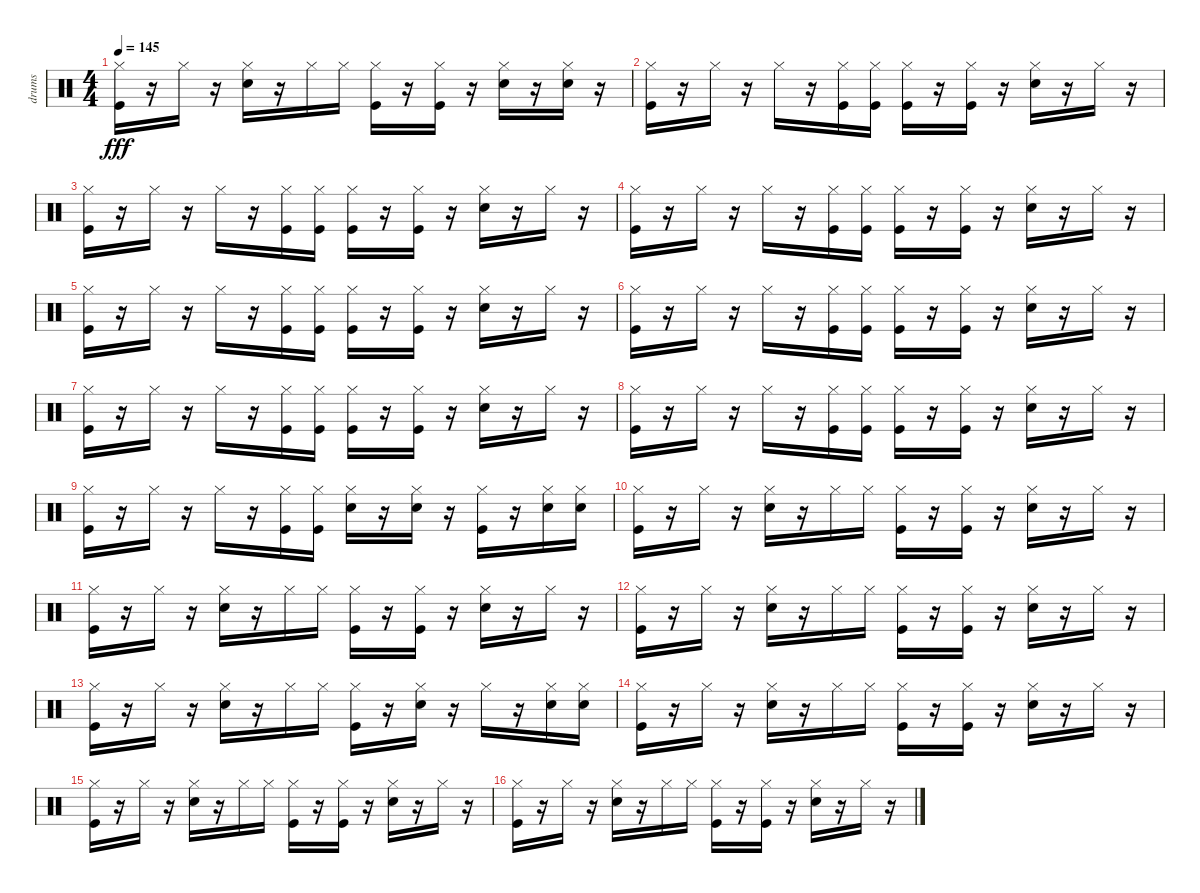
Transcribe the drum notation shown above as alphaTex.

\track ("drums" "drums") {instrument percussion}
\staff {score}
\articulation defaults
\ts (4 4)
\tempo 145
\clef neutral
\ks c
("Kick (hit)" "Hi-Hat (closed)").16{dy fff} r.16 "Hi-Hat (closed)".16 r.16 ("Snare (hit) 2" "Hi-Hat (closed)").16 r.16 "Hi-Hat (closed)".16 "Hi-Hat (closed)".16 ("Kick (hit)" "Hi-Hat (closed)").16 r.16 ("Kick (hit)" "Hi-Hat (closed)").16 r.16 ("Snare (hit) 2" "Hi-Hat (closed)").16 r.16 ("Snare (hit) 2" "Hi-Hat (closed)").16 r.16 |
("Kick (hit)" "Hi-Hat (closed)").16 r.16 "Hi-Hat (closed)".16 r.16 "Hi-Hat (closed)".16 r.16 ("Kick (hit)" "Hi-Hat (closed)").16 ("Kick (hit)" "Hi-Hat (closed)").16 ("Kick (hit)" "Hi-Hat (closed)").16 r.16 ("Kick (hit)" "Hi-Hat (closed)").16 r.16 ("Snare (hit) 2" "Hi-Hat (closed)").16 r.16 "Hi-Hat (closed)".16 r.16 |
("Kick (hit)" "Hi-Hat (closed)").16 r.16 "Hi-Hat (closed)".16 r.16 "Hi-Hat (closed)".16 r.16 ("Kick (hit)" "Hi-Hat (closed)").16 ("Kick (hit)" "Hi-Hat (closed)").16 ("Kick (hit)" "Hi-Hat (closed)").16 r.16 ("Kick (hit)" "Hi-Hat (closed)").16 r.16 ("Snare (hit) 2" "Hi-Hat (closed)").16 r.16 "Hi-Hat (closed)".16 r.16 |
("Kick (hit)" "Hi-Hat (closed)").16 r.16 "Hi-Hat (closed)".16 r.16 "Hi-Hat (closed)".16 r.16 ("Kick (hit)" "Hi-Hat (closed)").16 ("Kick (hit)" "Hi-Hat (closed)").16 ("Kick (hit)" "Hi-Hat (closed)").16 r.16 ("Kick (hit)" "Hi-Hat (closed)").16 r.16 ("Snare (hit) 2" "Hi-Hat (closed)").16 r.16 "Hi-Hat (closed)".16 r.16 |
("Kick (hit)" "Hi-Hat (closed)").16 r.16 "Hi-Hat (closed)".16 r.16 "Hi-Hat (closed)".16 r.16 ("Kick (hit)" "Hi-Hat (closed)").16 ("Kick (hit)" "Hi-Hat (closed)").16 ("Kick (hit)" "Hi-Hat (closed)").16 r.16 ("Kick (hit)" "Hi-Hat (closed)").16 r.16 ("Snare (hit) 2" "Hi-Hat (closed)").16 r.16 "Hi-Hat (closed)".16 r.16 |
("Kick (hit)" "Hi-Hat (closed)").16 r.16 "Hi-Hat (closed)".16 r.16 "Hi-Hat (closed)".16 r.16 ("Kick (hit)" "Hi-Hat (closed)").16 ("Kick (hit)" "Hi-Hat (closed)").16 ("Kick (hit)" "Hi-Hat (closed)").16 r.16 ("Kick (hit)" "Hi-Hat (closed)").16 r.16 ("Snare (hit) 2" "Hi-Hat (closed)").16 r.16 "Hi-Hat (closed)".16 r.16 |
("Kick (hit)" "Hi-Hat (closed)").16 r.16 "Hi-Hat (closed)".16 r.16 "Hi-Hat (closed)".16 r.16 ("Kick (hit)" "Hi-Hat (closed)").16 ("Kick (hit)" "Hi-Hat (closed)").16 ("Kick (hit)" "Hi-Hat (closed)").16 r.16 ("Kick (hit)" "Hi-Hat (closed)").16 r.16 ("Snare (hit) 2" "Hi-Hat (closed)").16 r.16 "Hi-Hat (closed)".16 r.16 |
("Kick (hit)" "Hi-Hat (closed)").16 r.16 "Hi-Hat (closed)".16 r.16 "Hi-Hat (closed)".16 r.16 ("Kick (hit)" "Hi-Hat (closed)").16 ("Kick (hit)" "Hi-Hat (closed)").16 ("Kick (hit)" "Hi-Hat (closed)").16 r.16 ("Kick (hit)" "Hi-Hat (closed)").16 r.16 ("Snare (hit) 2" "Hi-Hat (closed)").16 r.16 "Hi-Hat (closed)".16 r.16 |
("Kick (hit)" "Hi-Hat (closed)").16 r.16 "Hi-Hat (closed)".16 r.16 "Hi-Hat (closed)".16 r.16 ("Kick (hit)" "Hi-Hat (closed)").16 ("Kick (hit)" "Hi-Hat (closed)").16 ("Snare (hit) 2" "Hi-Hat (closed)").16 r.16 ("Snare (hit) 2" "Hi-Hat (closed)").16 r.16 ("Kick (hit)" "Hi-Hat (closed)").16 r.16 ("Snare (hit) 2" "Hi-Hat (closed)").16 ("Snare (hit) 2" "Hi-Hat (closed)").16 |
("Kick (hit)" "Hi-Hat (closed)").16 r.16 "Hi-Hat (closed)".16 r.16 ("Snare (hit) 2" "Hi-Hat (closed)").16 r.16 "Hi-Hat (closed)".16 "Hi-Hat (closed)".16 ("Kick (hit)" "Hi-Hat (closed)").16 r.16 ("Kick (hit)" "Hi-Hat (closed)").16 r.16 ("Snare (hit) 2" "Hi-Hat (closed)").16 r.16 "Hi-Hat (closed)".16 r.16 |
("Kick (hit)" "Hi-Hat (closed)").16 r.16 "Hi-Hat (closed)".16 r.16 ("Snare (hit) 2" "Hi-Hat (closed)").16 r.16 "Hi-Hat (closed)".16 "Hi-Hat (closed)".16 ("Kick (hit)" "Hi-Hat (closed)").16 r.16 ("Kick (hit)" "Hi-Hat (closed)").16 r.16 ("Snare (hit) 2" "Hi-Hat (closed)").16 r.16 "Hi-Hat (closed)".16 r.16 |
("Kick (hit)" "Hi-Hat (closed)").16 r.16 "Hi-Hat (closed)".16 r.16 ("Snare (hit) 2" "Hi-Hat (closed)").16 r.16 "Hi-Hat (closed)".16 "Hi-Hat (closed)".16 ("Kick (hit)" "Hi-Hat (closed)").16 r.16 ("Kick (hit)" "Hi-Hat (closed)").16 r.16 ("Snare (hit) 2" "Hi-Hat (closed)").16 r.16 "Hi-Hat (closed)".16 r.16 |
("Kick (hit)" "Hi-Hat (closed)").16 r.16 "Hi-Hat (closed)".16 r.16 ("Snare (hit) 2" "Hi-Hat (closed)").16 r.16 "Hi-Hat (closed)".16 "Hi-Hat (closed)".16 ("Kick (hit)" "Hi-Hat (closed)").16 r.16 ("Snare (hit) 2" "Hi-Hat (closed)").16 r.16 "Hi-Hat (closed)".16 r.16 ("Snare (hit) 2" "Hi-Hat (closed)").16 ("Snare (hit) 2" "Hi-Hat (closed)").16 |
("Kick (hit)" "Hi-Hat (closed)").16 r.16 "Hi-Hat (closed)".16 r.16 ("Snare (hit) 2" "Hi-Hat (closed)").16 r.16 "Hi-Hat (closed)".16 "Hi-Hat (closed)".16 ("Kick (hit)" "Hi-Hat (closed)").16 r.16 ("Kick (hit)" "Hi-Hat (closed)").16 r.16 ("Snare (hit) 2" "Hi-Hat (closed)").16 r.16 "Hi-Hat (closed)".16 r.16 |
("Kick (hit)" "Hi-Hat (closed)").16 r.16 "Hi-Hat (closed)".16 r.16 ("Snare (hit) 2" "Hi-Hat (closed)").16 r.16 "Hi-Hat (closed)".16 "Hi-Hat (closed)".16 ("Kick (hit)" "Hi-Hat (closed)").16 r.16 ("Kick (hit)" "Hi-Hat (closed)").16 r.16 ("Snare (hit) 2" "Hi-Hat (closed)").16 r.16 "Hi-Hat (closed)".16 r.16 |
("Kick (hit)" "Hi-Hat (closed)").16 r.16 "Hi-Hat (closed)".16 r.16 ("Snare (hit) 2" "Hi-Hat (closed)").16 r.16 "Hi-Hat (closed)".16 "Hi-Hat (closed)".16 ("Kick (hit)" "Hi-Hat (closed)").16 r.16 ("Kick (hit)" "Hi-Hat (closed)").16 r.16 ("Snare (hit) 2" "Hi-Hat (closed)").16 r.16 "Hi-Hat (closed)".16 r.16
